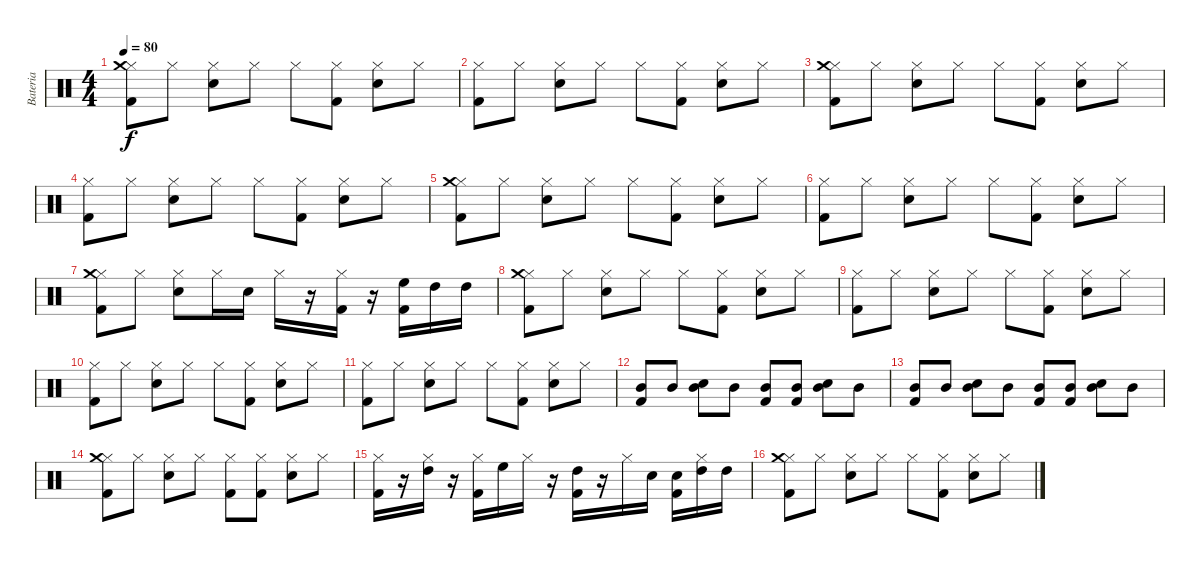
\track ("Bateria" "Bateria") {instrument percussion}
\staff {score}
\articulation defaults
\ts (4 4)
\tempo 80
\clef neutral
\ks c
("Hi-Hat (closed)" "Kick (hit) 2" "Crash medium (hit)").8{dy f} "Hi-Hat (closed)".8 ("Hi-Hat (closed)" "Snare (hit) 2").8 "Hi-Hat (closed)".8 "Hi-Hat (closed)".8 ("Hi-Hat (closed)" "Kick (hit) 2").8 ("Hi-Hat (closed)" "Snare (hit) 2").8 "Hi-Hat (closed)".8 |
("Hi-Hat (closed)" "Kick (hit) 2").8 "Hi-Hat (closed)".8 ("Hi-Hat (closed)" "Snare (hit) 2").8 "Hi-Hat (closed)".8 "Hi-Hat (closed)".8 ("Hi-Hat (closed)" "Kick (hit) 2").8 ("Hi-Hat (closed)" "Snare (hit) 2").8 "Hi-Hat (closed)".8 |
("Hi-Hat (closed)" "Kick (hit) 2" "Crash medium (hit)").8 "Hi-Hat (closed)".8 ("Hi-Hat (closed)" "Snare (hit) 2").8 "Hi-Hat (closed)".8 "Hi-Hat (closed)".8 ("Hi-Hat (closed)" "Kick (hit) 2").8 ("Hi-Hat (closed)" "Snare (hit) 2").8 "Hi-Hat (closed)".8 |
("Hi-Hat (closed)" "Kick (hit) 2").8 "Hi-Hat (closed)".8 ("Hi-Hat (closed)" "Snare (hit) 2").8 "Hi-Hat (closed)".8 "Hi-Hat (closed)".8 ("Hi-Hat (closed)" "Kick (hit) 2").8 ("Hi-Hat (closed)" "Snare (hit) 2").8 "Hi-Hat (closed)".8 |
("Hi-Hat (closed)" "Kick (hit) 2" "Crash medium (hit)").8 "Hi-Hat (closed)".8 ("Hi-Hat (closed)" "Snare (hit) 2").8 "Hi-Hat (closed)".8 "Hi-Hat (closed)".8 ("Hi-Hat (closed)" "Kick (hit) 2").8 ("Hi-Hat (closed)" "Snare (hit) 2").8 "Hi-Hat (closed)".8 |
("Hi-Hat (closed)" "Kick (hit) 2").8 "Hi-Hat (closed)".8 ("Hi-Hat (closed)" "Snare (hit) 2").8 "Hi-Hat (closed)".8 "Hi-Hat (closed)".8 ("Hi-Hat (closed)" "Kick (hit) 2").8 ("Hi-Hat (closed)" "Snare (hit) 2").8 "Hi-Hat (closed)".8 |
("Hi-Hat (closed)" "Kick (hit) 2" "Crash medium (hit)").8 "Hi-Hat (closed)".8 ("Hi-Hat (closed)" "Snare (hit) 2").8 "Hi-Hat (closed)".16 "Snare (hit) 2".16 "Hi-Hat (closed)".16 r.16 ("Hi-Hat (closed)" "Kick (hit) 2").16 r.16 ("High Floor Tom (hit)" "Kick (hit) 2").16 "High Tom (hit)".16 "High Tom (hit)".16 |
("Hi-Hat (closed)" "Kick (hit) 2" "Crash medium (hit)").8 "Hi-Hat (closed)".8 ("Hi-Hat (closed)" "Snare (hit) 2").8 "Hi-Hat (closed)".8 "Hi-Hat (closed)".8 ("Hi-Hat (closed)" "Kick (hit) 2").8 ("Hi-Hat (closed)" "Snare (hit) 2").8 "Hi-Hat (closed)".8 |
("Hi-Hat (closed)" "Kick (hit) 2").8 "Hi-Hat (closed)".8 ("Hi-Hat (closed)" "Snare (hit) 2").8 "Hi-Hat (closed)".8 "Hi-Hat (closed)".8 ("Hi-Hat (closed)" "Kick (hit) 2").8 ("Hi-Hat (closed)" "Snare (hit) 2").8 "Hi-Hat (closed)".8 |
("Hi-Hat (closed)" "Kick (hit) 2").8 "Hi-Hat (closed)".8 ("Hi-Hat (closed)" "Snare (hit) 2").8 "Hi-Hat (closed)".8 "Hi-Hat (closed)".8 ("Hi-Hat (closed)" "Kick (hit) 2").8 ("Hi-Hat (closed)" "Snare (hit) 2").8 "Hi-Hat (closed)".8 |
("Hi-Hat (closed)" "Kick (hit) 2").8 "Hi-Hat (closed)".8 ("Hi-Hat (closed)" "Snare (hit) 2").8 "Hi-Hat (closed)".8 "Hi-Hat (closed)".8 ("Hi-Hat (closed)" "Kick (hit) 2").8 ("Hi-Hat (closed)" "Snare (hit) 2").8 "Hi-Hat (closed)".8 |
("Mid Tom (hit)" "Kick (hit) 2").8 "Mid Tom (hit)".8 ("Mid Tom (hit)" "Snare (hit) 2").8 "Mid Tom (hit)".8 ("Mid Tom (hit)" "Kick (hit) 2").8 ("Mid Tom (hit)" "Kick (hit) 2").8 ("Mid Tom (hit)" "Snare (hit) 2").8 "Mid Tom (hit)".8 |
("Mid Tom (hit)" "Kick (hit) 2").8 "Mid Tom (hit)".8 ("Mid Tom (hit)" "Snare (hit) 2").8 "Mid Tom (hit)".8 ("Mid Tom (hit)" "Kick (hit) 2").8 ("Mid Tom (hit)" "Kick (hit) 2").8 ("Mid Tom (hit)" "Snare (hit) 2").8 "Mid Tom (hit)".8 |
("Hi-Hat (closed)" "Kick (hit) 2" "Crash medium (hit)").8 "Hi-Hat (closed)".8 ("Hi-Hat (closed)" "Snare (hit) 2").8 "Hi-Hat (closed)".8 ("Hi-Hat (closed)" "Kick (hit) 2").8 ("Hi-Hat (closed)" "Kick (hit) 2").8 ("Hi-Hat (closed)" "Snare (hit) 2").8 "Hi-Hat (closed)".8 |
("Hi-Hat (closed)" "Kick (hit) 2").16 r.16 ("Hi-Hat (closed)" "High Tom (hit)").16 r.16 ("Hi-Hat (closed)" "Kick (hit) 2").16 "High Floor Tom (hit)".16 "Hi-Hat (closed)".16 r.16 ("High Tom (hit)" "Kick (hit) 2").16 r.16 "Hi-Hat (closed)".16 "Snare (hit) 2".16 ("Snare (hit) 2" "Kick (hit) 2").16 ("Hi-Hat (closed)" "High Tom (hit)").16 "High Tom (hit)".16 |
("Hi-Hat (closed)" "Kick (hit) 2" "Crash medium (hit)").8 "Hi-Hat (closed)".8 ("Hi-Hat (closed)" "Snare (hit) 2").8 "Hi-Hat (closed)".8 "Hi-Hat (closed)".8 ("Hi-Hat (closed)" "Kick (hit) 2").8 ("Hi-Hat (closed)" "Snare (hit) 2").8 "Hi-Hat (closed)".8
